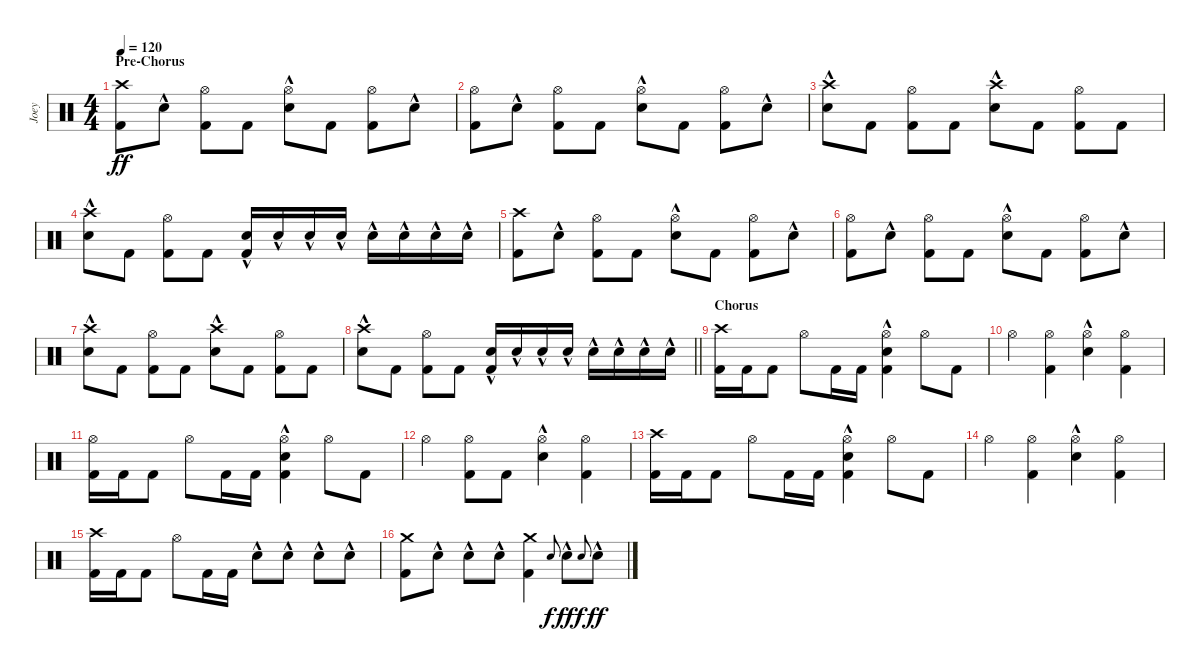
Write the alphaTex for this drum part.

\track ("Joey" "Joey") {instrument percussion}
\staff {score}
\articulation defaults
\ts (4 4)
\section ("" "Pre-Chorus")
\tempo 120
\clef neutral
\ks c
("Crash high (hit)" "Kick (hit) 2").8{dy ff} "Snare (hit) 2"{hac}.8 ("Hi-Hat (open)" "Kick (hit) 2").8 "Kick (hit) 2".8 ("Hi-Hat (open)" "Snare (hit) 2"{hac}).8 "Kick (hit) 2".8 ("Hi-Hat (open)" "Kick (hit) 2").8 "Snare (hit) 2"{hac}.8 |
("Hi-Hat (open)" "Kick (hit) 2").8 "Snare (hit) 2"{hac}.8 ("Hi-Hat (open)" "Kick (hit) 2").8 "Kick (hit) 2".8 ("Hi-Hat (open)" "Snare (hit) 2"{hac}).8 "Kick (hit) 2".8 ("Hi-Hat (open)" "Kick (hit) 2").8 "Snare (hit) 2"{hac}.8 |
("Crash high (hit)" "Snare (hit) 2"{hac}).8 "Kick (hit) 2".8 ("Hi-Hat (open)" "Kick (hit) 2").8 "Kick (hit) 2".8 ("Crash high (hit)" "Snare (hit) 2"{hac}).8 "Kick (hit) 2".8 ("Hi-Hat (open)" "Kick (hit) 2").8 "Kick (hit) 2".8 |
("Crash high (hit)" "Snare (hit) 2"{hac}).8 "Kick (hit) 2".8 ("Hi-Hat (open)" "Kick (hit) 2").8 "Kick (hit) 2".8 ("Snare (hit) 2"{hac} "Kick (hit) 2").16 "Snare (hit) 2"{hac}.16 "Snare (hit) 2"{hac}.16 "Snare (hit) 2"{hac}.16 "Snare (hit) 2"{hac}.16 "Snare (hit) 2"{hac}.16 "Snare (hit) 2"{hac}.16 "Snare (hit) 2"{hac}.16 |
("Crash high (hit)" "Kick (hit) 2").8 "Snare (hit) 2"{hac}.8 ("Hi-Hat (open)" "Kick (hit) 2").8 "Kick (hit) 2".8 ("Hi-Hat (open)" "Snare (hit) 2"{hac}).8 "Kick (hit) 2".8 ("Hi-Hat (open)" "Kick (hit) 2").8 "Snare (hit) 2"{hac}.8 |
("Hi-Hat (open)" "Kick (hit) 2").8 "Snare (hit) 2"{hac}.8 ("Hi-Hat (open)" "Kick (hit) 2").8 "Kick (hit) 2".8 ("Hi-Hat (open)" "Snare (hit) 2"{hac}).8 "Kick (hit) 2".8 ("Hi-Hat (open)" "Kick (hit) 2").8 "Snare (hit) 2"{hac}.8 |
("Crash high (hit)" "Snare (hit) 2"{hac}).8 "Kick (hit) 2".8 ("Hi-Hat (open)" "Kick (hit) 2").8 "Kick (hit) 2".8 ("Crash high (hit)" "Snare (hit) 2"{hac}).8 "Kick (hit) 2".8 ("Hi-Hat (open)" "Kick (hit) 2").8 "Kick (hit) 2".8 |
\barLineRight lightlight
("Crash high (hit)" "Snare (hit) 2"{hac}).8 "Kick (hit) 2".8 ("Hi-Hat (open)" "Kick (hit) 2").8 "Kick (hit) 2".8 ("Snare (hit) 2"{hac} "Kick (hit) 2").16 "Snare (hit) 2"{hac}.16 "Snare (hit) 2"{hac}.16 "Snare (hit) 2"{hac}.16 "Snare (hit) 2"{hac}.16 "Snare (hit) 2"{hac}.16 "Snare (hit) 2"{hac}.16 "Snare (hit) 2"{hac}.16 |
\section ("" "Chorus")
("Crash high (hit)" "Kick (hit) 2").16 "Kick (hit) 2".16 "Kick (hit) 2".8 "Hi-Hat (open)".8 "Kick (hit) 2".16 "Kick (hit) 2".16 ("Hi-Hat (open)" "Snare (hit) 2"{hac} "Kick (hit) 2").4 "Hi-Hat (open)".8 "Kick (hit) 2".8 |
"Hi-Hat (open)".4 ("Hi-Hat (open)" "Kick (hit) 2").4 ("Hi-Hat (open)" "Snare (hit) 2"{hac}).4 ("Hi-Hat (open)" "Kick (hit) 2").4 |
("Hi-Hat (open)" "Kick (hit) 2").16 "Kick (hit) 2".16 "Kick (hit) 2".8 "Hi-Hat (open)".8 "Kick (hit) 2".16 "Kick (hit) 2".16 ("Hi-Hat (open)" "Snare (hit) 2"{hac} "Kick (hit) 2").4 "Hi-Hat (open)".8 "Kick (hit) 2".8 |
"Hi-Hat (open)".4 ("Hi-Hat (open)" "Kick (hit) 2").8 "Kick (hit) 2".8 ("Hi-Hat (open)" "Snare (hit) 2"{hac}).4 ("Hi-Hat (open)" "Kick (hit) 2").4 |
("Crash high (hit)" "Kick (hit) 2").16 "Kick (hit) 2".16 "Kick (hit) 2".8 "Hi-Hat (open)".8 "Kick (hit) 2".16 "Kick (hit) 2".16 ("Hi-Hat (open)" "Snare (hit) 2"{hac} "Kick (hit) 2").4 "Hi-Hat (open)".8 "Kick (hit) 2".8 |
"Hi-Hat (open)".4 ("Hi-Hat (open)" "Kick (hit) 2").4 ("Hi-Hat (open)" "Snare (hit) 2"{hac}).4 ("Hi-Hat (open)" "Kick (hit) 2").4 |
("Crash high (hit)" "Kick (hit) 2").16 "Kick (hit) 2".16 "Kick (hit) 2".8 "Hi-Hat (open)".8 "Kick (hit) 2".16 "Kick (hit) 2".16 "Snare (hit) 2"{hac}.8 "Snare (hit) 2"{hac}.8 "Snare (hit) 2"{hac}.8 "Snare (hit) 2"{hac}.8 |
("Crash medium (hit)" "Kick (hit) 2").8 "Snare (hit) 2"{hac}.8 "Snare (hit) 2"{hac}.8 "Snare (hit) 2"{hac}.8 ("Crash medium (hit)" "Kick (hit) 2").4 "Snare (hit) 2".8{gr onbeat dy f} "Snare (hit) 2"{hac}.8{dy ff} "Snare (hit) 2".8{gr onbeat dy f} "Snare (hit) 2"{hac}.8{dy ff}
